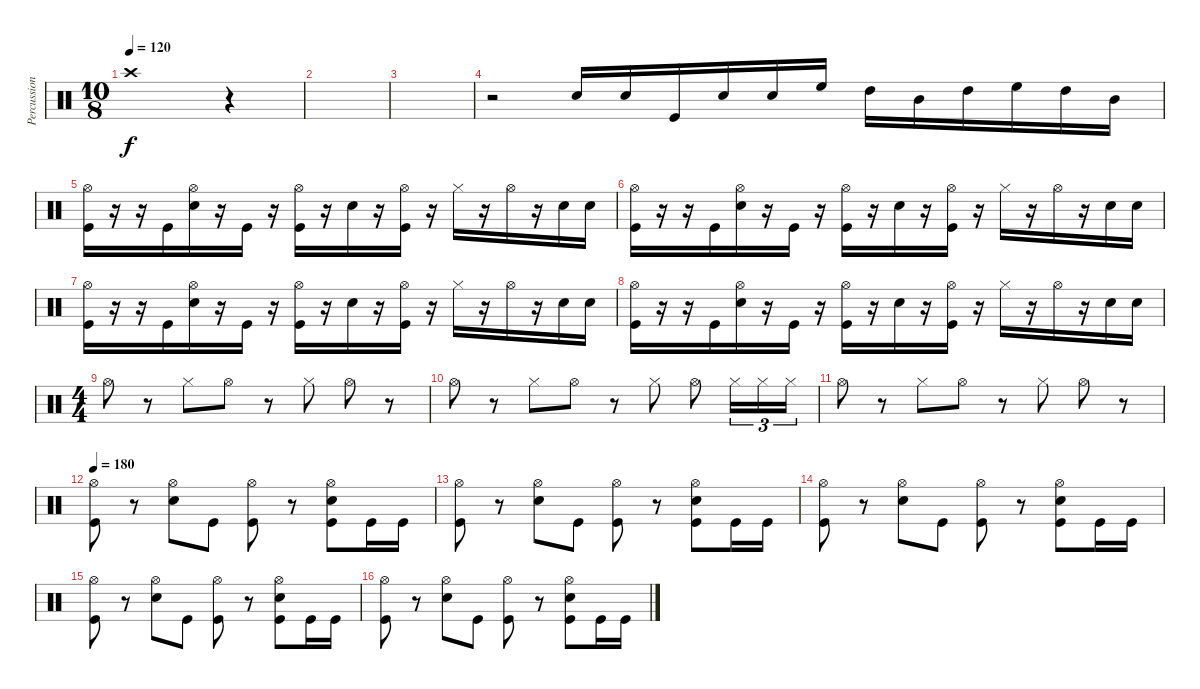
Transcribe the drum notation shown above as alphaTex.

\track ("Percussion" "Percussion") {instrument percussion}
\staff {score}
\articulation defaults
\ts (10 8)
\tempo 120
\clef neutral
\ks c "Crash high (hit)".1{dy f}
r.4 |
|
|
r.2 "Snare (hit) 2".16 "Snare (hit) 2".16 "Kick (hit)".16 "Snare (hit) 2".16 "Snare (hit) 2".16 "High Floor Tom (hit)".16 "High Tom (hit)".16 "Mid Tom (hit)".16 "High Tom (hit)".16 "High Floor Tom (hit)".16 "High Tom (hit)".16 "Mid Tom (hit)".16 |
("Hi-Hat (open)" "Kick (hit)").16 r.16 r.16 "Kick (hit)".16 ("Hi-Hat (open)" "Snare (hit) 2").16 r.16 "Kick (hit)".16 r.16 ("Hi-Hat (open)" "Kick (hit)").16 r.16 "Snare (hit) 2".16 r.16 ("Hi-Hat (open)" "Kick (hit)").16 r.16 "Hi-Hat (closed)".16 r.16 "Hi-Hat (open)".16 r.16 "Snare (hit) 2".16 "Snare (hit) 2".16 |
("Hi-Hat (open)" "Kick (hit)").16 r.16 r.16 "Kick (hit)".16 ("Hi-Hat (open)" "Snare (hit) 2").16 r.16 "Kick (hit)".16 r.16 ("Hi-Hat (open)" "Kick (hit)").16 r.16 "Snare (hit) 2".16 r.16 ("Hi-Hat (open)" "Kick (hit)").16 r.16 "Hi-Hat (closed)".16 r.16 "Hi-Hat (open)".16 r.16 "Snare (hit) 2".16 "Snare (hit) 2".16 |
("Hi-Hat (open)" "Kick (hit)").16 r.16 r.16 "Kick (hit)".16 ("Hi-Hat (open)" "Snare (hit) 2").16 r.16 "Kick (hit)".16 r.16 ("Hi-Hat (open)" "Kick (hit)").16 r.16 "Snare (hit) 2".16 r.16 ("Hi-Hat (open)" "Kick (hit)").16 r.16 "Hi-Hat (closed)".16 r.16 "Hi-Hat (open)".16 r.16 "Snare (hit) 2".16 "Snare (hit) 2".16 |
("Hi-Hat (open)" "Kick (hit)").16 r.16 r.16 "Kick (hit)".16 ("Hi-Hat (open)" "Snare (hit) 2").16 r.16 "Kick (hit)".16 r.16 ("Hi-Hat (open)" "Kick (hit)").16 r.16 "Snare (hit) 2".16 r.16 ("Hi-Hat (open)" "Kick (hit)").16 r.16 "Hi-Hat (closed)".16 r.16 "Hi-Hat (open)".16 r.16 "Snare (hit) 2".16 "Snare (hit) 2".16 |
\ts (4 4)
"Hi-Hat (open)".8 r.8 "Hi-Hat (closed)".8 "Hi-Hat (open)".8 r.8 "Hi-Hat (closed)".8 "Hi-Hat (open)".8 r.8 |
"Hi-Hat (open)".8 r.8 "Hi-Hat (closed)".8 "Hi-Hat (open)".8 r.8 "Hi-Hat (closed)".8 "Hi-Hat (open)".8 "Hi-Hat (closed)".16{tu (3 2)} "Hi-Hat (closed)".16{tu (3 2)} "Hi-Hat (closed)".16{tu (3 2)} |
"Hi-Hat (open)".8 r.8 "Hi-Hat (closed)".8 "Hi-Hat (open)".8 r.8 "Hi-Hat (closed)".8 "Hi-Hat (open)".8 r.8 |
\tempo 180
("Kick (hit)" "Hi-Hat (open)").8 r.8 ("Hi-Hat (open)" "Snare (hit) 2").8 "Kick (hit)".8 ("Kick (hit)" "Hi-Hat (open)").8 r.8 ("Kick (hit)" "Hi-Hat (open)" "Snare (hit) 2").8 "Kick (hit)".16 "Kick (hit)".16 |
("Kick (hit)" "Hi-Hat (open)").8 r.8 ("Hi-Hat (open)" "Snare (hit) 2").8 "Kick (hit)".8 ("Kick (hit)" "Hi-Hat (open)").8 r.8 ("Kick (hit)" "Hi-Hat (open)" "Snare (hit) 2").8 "Kick (hit)".16 "Kick (hit)".16 |
("Kick (hit)" "Hi-Hat (open)").8 r.8 ("Hi-Hat (open)" "Snare (hit) 2").8 "Kick (hit)".8 ("Kick (hit)" "Hi-Hat (open)").8 r.8 ("Kick (hit)" "Hi-Hat (open)" "Snare (hit) 2").8 "Kick (hit)".16 "Kick (hit)".16 |
("Kick (hit)" "Hi-Hat (open)").8 r.8 ("Hi-Hat (open)" "Snare (hit) 2").8 "Kick (hit)".8 ("Kick (hit)" "Hi-Hat (open)").8 r.8 ("Kick (hit)" "Hi-Hat (open)" "Snare (hit) 2").8 "Kick (hit)".16 "Kick (hit)".16 |
("Kick (hit)" "Hi-Hat (open)").8 r.8 ("Hi-Hat (open)" "Snare (hit) 2").8 "Kick (hit)".8 ("Kick (hit)" "Hi-Hat (open)").8 r.8 ("Kick (hit)" "Hi-Hat (open)" "Snare (hit) 2").8 "Kick (hit)".16 "Kick (hit)".16
